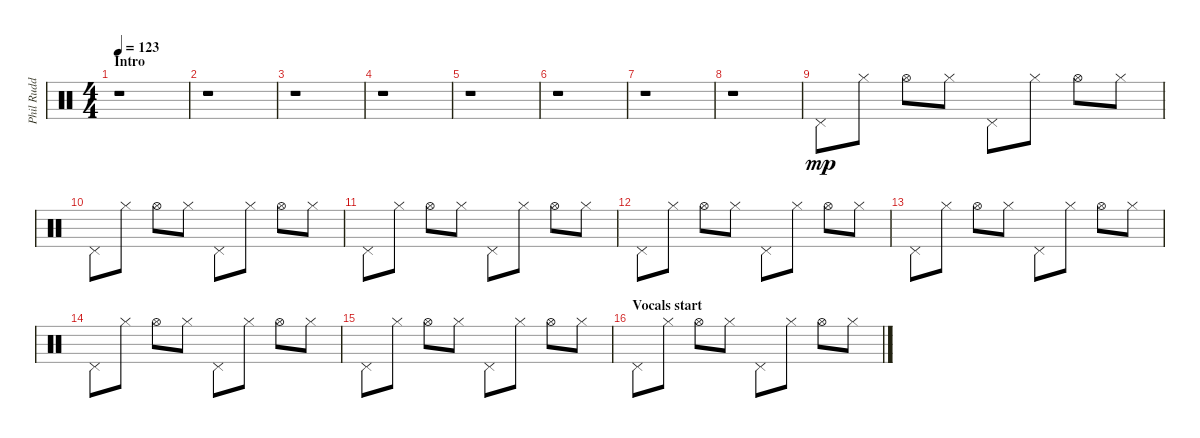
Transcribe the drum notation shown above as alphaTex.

\track ("Phil Rudd (HiHat)" "Phil Rudd ") {instrument percussion}
\staff {score}
\articulation defaults
\ts (4 4)
\section ("" "Intro")
\tempo 123
\clef neutral
\ks c
r.1{dy mp} |
r.1 |
r.1 |
r.1 |
r.1 |
r.1 |
r.1 |
r.1 |
"Pedal Hi-Hat (hit)".8 "Hi-Hat (closed)".8 "Hi-Hat (open)".8 "Hi-Hat (closed)".8 "Pedal Hi-Hat (hit)".8 "Hi-Hat (closed)".8 "Hi-Hat (open)".8 "Hi-Hat (closed)".8 |
"Pedal Hi-Hat (hit)".8 "Hi-Hat (closed)".8 "Hi-Hat (open)".8 "Hi-Hat (closed)".8 "Pedal Hi-Hat (hit)".8 "Hi-Hat (closed)".8 "Hi-Hat (open)".8 "Hi-Hat (closed)".8 |
"Pedal Hi-Hat (hit)".8 "Hi-Hat (closed)".8 "Hi-Hat (open)".8 "Hi-Hat (closed)".8 "Pedal Hi-Hat (hit)".8 "Hi-Hat (closed)".8 "Hi-Hat (open)".8 "Hi-Hat (closed)".8 |
"Pedal Hi-Hat (hit)".8 "Hi-Hat (closed)".8 "Hi-Hat (open)".8 "Hi-Hat (closed)".8 "Pedal Hi-Hat (hit)".8 "Hi-Hat (closed)".8 "Hi-Hat (open)".8 "Hi-Hat (closed)".8 |
"Pedal Hi-Hat (hit)".8 "Hi-Hat (closed)".8 "Hi-Hat (open)".8 "Hi-Hat (closed)".8 "Pedal Hi-Hat (hit)".8 "Hi-Hat (closed)".8 "Hi-Hat (open)".8 "Hi-Hat (closed)".8 |
"Pedal Hi-Hat (hit)".8 "Hi-Hat (closed)".8 "Hi-Hat (open)".8 "Hi-Hat (closed)".8 "Pedal Hi-Hat (hit)".8 "Hi-Hat (closed)".8 "Hi-Hat (open)".8 "Hi-Hat (closed)".8 |
"Pedal Hi-Hat (hit)".8 "Hi-Hat (closed)".8 "Hi-Hat (open)".8 "Hi-Hat (closed)".8 "Pedal Hi-Hat (hit)".8 "Hi-Hat (closed)".8 "Hi-Hat (open)".8 "Hi-Hat (closed)".8 |
\section ("" "Vocals start")
"Pedal Hi-Hat (hit)".8 "Hi-Hat (closed)".8 "Hi-Hat (open)".8 "Hi-Hat (closed)".8 "Pedal Hi-Hat (hit)".8 "Hi-Hat (closed)".8 "Hi-Hat (open)".8 "Hi-Hat (closed)".8
